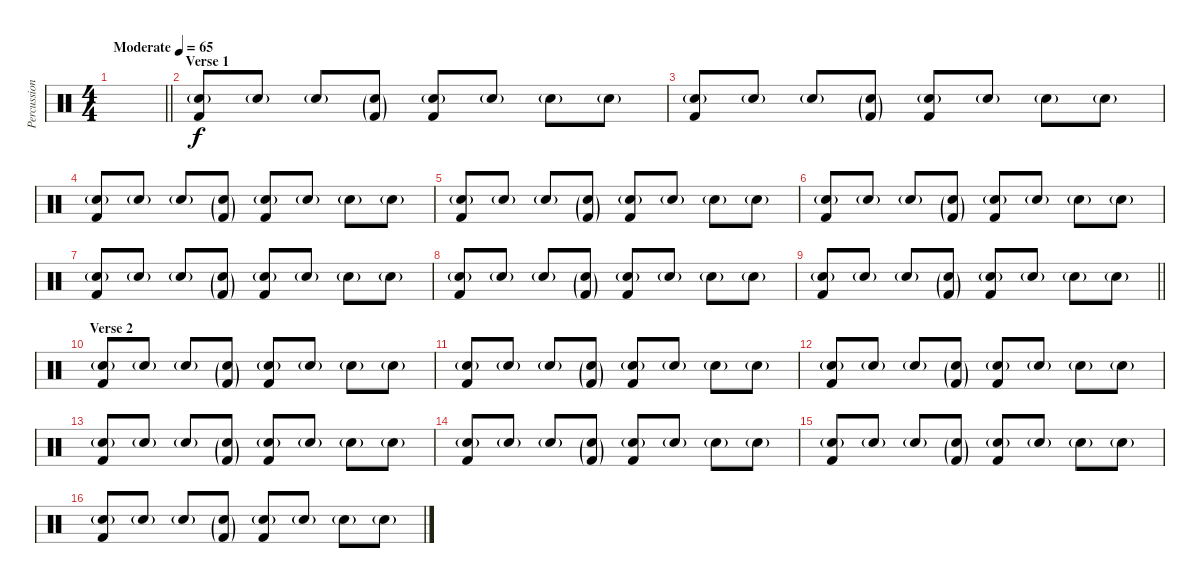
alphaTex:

\track ("Percussion" "Percussion") {instrument percussion}
\staff {score}
\articulation defaults
\ts (4 4)
\tempo (65 "Moderate")
\clef neutral
\barLineRight lightlight
\ks c
|
\section ("" "Verse 1")
("Snare (hit) 2"{g} "Kick (hit) 2").8 "Snare (hit) 2"{g}.8 "Snare (hit) 2"{g}.8 ("Snare (hit) 2"{g} "Kick (hit) 2"{g}).8 ("Snare (hit) 2"{g} "Kick (hit) 2").8 "Snare (hit) 2"{g}.8 "Snare (hit) 2"{g}.8 "Snare (hit) 2"{g}.8 |
("Snare (hit) 2"{g} "Kick (hit) 2").8 "Snare (hit) 2"{g}.8 "Snare (hit) 2"{g}.8 ("Snare (hit) 2"{g} "Kick (hit) 2"{g}).8 ("Snare (hit) 2"{g} "Kick (hit) 2").8 "Snare (hit) 2"{g}.8 "Snare (hit) 2"{g}.8 "Snare (hit) 2"{g}.8 |
("Snare (hit) 2"{g} "Kick (hit) 2").8 "Snare (hit) 2"{g}.8 "Snare (hit) 2"{g}.8 ("Snare (hit) 2"{g} "Kick (hit) 2"{g}).8 ("Snare (hit) 2"{g} "Kick (hit) 2").8 "Snare (hit) 2"{g}.8 "Snare (hit) 2"{g}.8 "Snare (hit) 2"{g}.8 |
("Snare (hit) 2"{g} "Kick (hit) 2").8 "Snare (hit) 2"{g}.8 "Snare (hit) 2"{g}.8 ("Snare (hit) 2"{g} "Kick (hit) 2"{g}).8 ("Snare (hit) 2"{g} "Kick (hit) 2").8 "Snare (hit) 2"{g}.8 "Snare (hit) 2"{g}.8 "Snare (hit) 2"{g}.8 |
("Snare (hit) 2"{g} "Kick (hit) 2").8 "Snare (hit) 2"{g}.8 "Snare (hit) 2"{g}.8 ("Snare (hit) 2"{g} "Kick (hit) 2"{g}).8 ("Snare (hit) 2"{g} "Kick (hit) 2").8 "Snare (hit) 2"{g}.8 "Snare (hit) 2"{g}.8 "Snare (hit) 2"{g}.8 |
("Snare (hit) 2"{g} "Kick (hit) 2").8 "Snare (hit) 2"{g}.8 "Snare (hit) 2"{g}.8 ("Snare (hit) 2"{g} "Kick (hit) 2"{g}).8 ("Snare (hit) 2"{g} "Kick (hit) 2").8 "Snare (hit) 2"{g}.8 "Snare (hit) 2"{g}.8 "Snare (hit) 2"{g}.8 |
("Snare (hit) 2"{g} "Kick (hit) 2").8 "Snare (hit) 2"{g}.8 "Snare (hit) 2"{g}.8 ("Snare (hit) 2"{g} "Kick (hit) 2"{g}).8 ("Snare (hit) 2"{g} "Kick (hit) 2").8 "Snare (hit) 2"{g}.8 "Snare (hit) 2"{g}.8 "Snare (hit) 2"{g}.8 |
\barLineRight lightlight
("Snare (hit) 2"{g} "Kick (hit) 2").8 "Snare (hit) 2"{g}.8 "Snare (hit) 2"{g}.8 ("Snare (hit) 2"{g} "Kick (hit) 2"{g}).8 ("Snare (hit) 2"{g} "Kick (hit) 2").8 "Snare (hit) 2"{g}.8 "Snare (hit) 2"{g}.8 "Snare (hit) 2"{g}.8 |
\section ("" "Verse 2")
("Snare (hit) 2"{g} "Kick (hit) 2").8 "Snare (hit) 2"{g}.8 "Snare (hit) 2"{g}.8 ("Snare (hit) 2"{g} "Kick (hit) 2"{g}).8 ("Snare (hit) 2"{g} "Kick (hit) 2").8 "Snare (hit) 2"{g}.8 "Snare (hit) 2"{g}.8 "Snare (hit) 2"{g}.8 |
("Snare (hit) 2"{g} "Kick (hit) 2").8 "Snare (hit) 2"{g}.8 "Snare (hit) 2"{g}.8 ("Snare (hit) 2"{g} "Kick (hit) 2"{g}).8 ("Snare (hit) 2"{g} "Kick (hit) 2").8 "Snare (hit) 2"{g}.8 "Snare (hit) 2"{g}.8 "Snare (hit) 2"{g}.8 |
("Snare (hit) 2"{g} "Kick (hit) 2").8 "Snare (hit) 2"{g}.8 "Snare (hit) 2"{g}.8 ("Snare (hit) 2"{g} "Kick (hit) 2"{g}).8 ("Snare (hit) 2"{g} "Kick (hit) 2").8 "Snare (hit) 2"{g}.8 "Snare (hit) 2"{g}.8 "Snare (hit) 2"{g}.8 |
("Snare (hit) 2"{g} "Kick (hit) 2").8 "Snare (hit) 2"{g}.8 "Snare (hit) 2"{g}.8 ("Snare (hit) 2"{g} "Kick (hit) 2"{g}).8 ("Snare (hit) 2"{g} "Kick (hit) 2").8 "Snare (hit) 2"{g}.8 "Snare (hit) 2"{g}.8 "Snare (hit) 2"{g}.8 |
("Snare (hit) 2"{g} "Kick (hit) 2").8 "Snare (hit) 2"{g}.8 "Snare (hit) 2"{g}.8 ("Snare (hit) 2"{g} "Kick (hit) 2"{g}).8 ("Snare (hit) 2"{g} "Kick (hit) 2").8 "Snare (hit) 2"{g}.8 "Snare (hit) 2"{g}.8 "Snare (hit) 2"{g}.8 |
("Snare (hit) 2"{g} "Kick (hit) 2").8 "Snare (hit) 2"{g}.8 "Snare (hit) 2"{g}.8 ("Snare (hit) 2"{g} "Kick (hit) 2"{g}).8 ("Snare (hit) 2"{g} "Kick (hit) 2").8 "Snare (hit) 2"{g}.8 "Snare (hit) 2"{g}.8 "Snare (hit) 2"{g}.8 |
("Snare (hit) 2"{g} "Kick (hit) 2").8 "Snare (hit) 2"{g}.8 "Snare (hit) 2"{g}.8 ("Snare (hit) 2"{g} "Kick (hit) 2"{g}).8 ("Snare (hit) 2"{g} "Kick (hit) 2").8 "Snare (hit) 2"{g}.8 "Snare (hit) 2"{g}.8 "Snare (hit) 2"{g}.8
